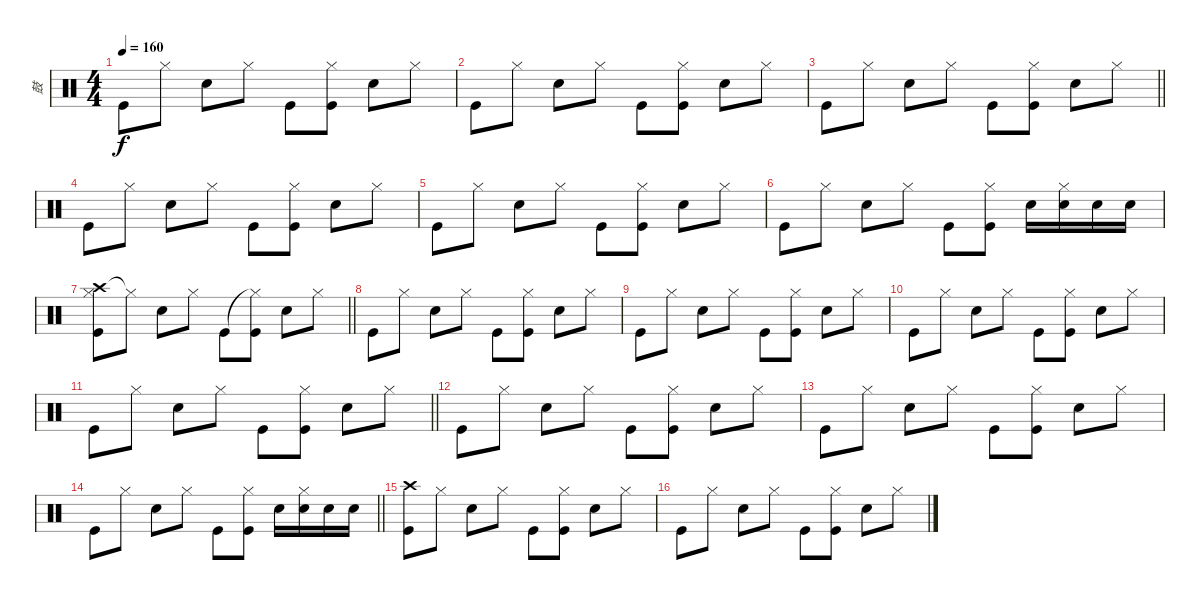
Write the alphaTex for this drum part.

\track ("鼓" "鼓") {instrument percussion}
\staff {score}
\articulation defaults
\ts (4 4)
\tempo 160
\clef neutral
\ks c "Kick (hit)".8{dy f} "Hi-Hat (closed)".8 "Electric Snare (hit)".8 "Hi-Hat (closed)".8 "Kick (hit)".8
("Hi-Hat (closed)" "Kick (hit)").8 "Electric Snare (hit)".8 "Hi-Hat (closed)".8 |
"Kick (hit)".8 "Hi-Hat (closed)".8 "Electric Snare (hit)".8 "Hi-Hat (closed)".8 "Kick (hit)".8 ("Hi-Hat (closed)" "Kick (hit)").8 "Electric Snare (hit)".8 "Hi-Hat (closed)".8 |
\barLineRight lightlight "Kick (hit)".8 "Hi-Hat (closed)".8 "Electric Snare (hit)".8 "Hi-Hat (closed)".8 "Kick (hit)".8
("Hi-Hat (closed)" "Kick (hit)").8 "Electric Snare (hit)".8 "Hi-Hat (closed)".8 |
"Kick (hit)".8 "Hi-Hat (closed)".8 "Electric Snare (hit)".8 "Hi-Hat (closed)".8 "Kick (hit)".8 ("Hi-Hat (closed)" "Kick (hit)").8 "Electric Snare (hit)".8 "Hi-Hat (closed)".8 |
"Kick (hit)".8 "Hi-Hat (closed)".8 "Electric Snare (hit)".8 "Hi-Hat (closed)".8 "Kick (hit)".8 ("Hi-Hat (closed)" "Kick (hit)").8 "Electric Snare (hit)".8 "Hi-Hat (closed)".8 |
"Kick (hit)".8 "Hi-Hat (closed)".8 "Electric Snare (hit)".8 "Hi-Hat (closed)".8 "Kick (hit)".8 ("Hi-Hat (closed)" "Kick (hit)").8 "Electric Snare (hit)".16 ("Hi-Hat (closed)" "Electric Snare (hit)").16 "Electric Snare (hit)".16 "Electric Snare (hit)".16 |
\barLineRight lightlight
("Crash high (hit)" "Hi-Hat (closed)" "Kick (hit)").8 "Hi-Hat (closed)"{t}.8 "Electric Snare (hit)".8 "Hi-Hat (closed)".8 "Kick (hit)".8 ("Hi-Hat (closed)"{t} "Kick (hit)").8 "Electric Snare (hit)".8 "Hi-Hat (closed)".8 |
"Kick (hit)".8 "Hi-Hat (closed)".8 "Electric Snare (hit)".8 "Hi-Hat (closed)".8 "Kick (hit)".8 ("Hi-Hat (closed)" "Kick (hit)").8 "Electric Snare (hit)".8 "Hi-Hat (closed)".8 |
"Kick (hit)".8 "Hi-Hat (closed)".8 "Electric Snare (hit)".8 "Hi-Hat (closed)".8 "Kick (hit)".8 ("Hi-Hat (closed)" "Kick (hit)").8 "Electric Snare (hit)".8 "Hi-Hat (closed)".8 |
"Kick (hit)".8 "Hi-Hat (closed)".8 "Electric Snare (hit)".8 "Hi-Hat (closed)".8 "Kick (hit)".8 ("Hi-Hat (closed)" "Kick (hit)").8 "Electric Snare (hit)".8 "Hi-Hat (closed)".8 |
\barLineRight lightlight "Kick (hit)".8 "Hi-Hat (closed)".8 "Electric Snare (hit)".8 "Hi-Hat (closed)".8 "Kick (hit)".8
("Hi-Hat (closed)" "Kick (hit)").8 "Electric Snare (hit)".8 "Hi-Hat (closed)".8 |
"Kick (hit)".8 "Hi-Hat (closed)".8 "Electric Snare (hit)".8 "Hi-Hat (closed)".8 "Kick (hit)".8 ("Hi-Hat (closed)" "Kick (hit)").8 "Electric Snare (hit)".8 "Hi-Hat (closed)".8 |
"Kick (hit)".8 "Hi-Hat (closed)".8 "Electric Snare (hit)".8 "Hi-Hat (closed)".8 "Kick (hit)".8 ("Hi-Hat (closed)" "Kick (hit)").8 "Electric Snare (hit)".8 "Hi-Hat (closed)".8 |
\barLineRight lightlight "Kick (hit)".8 "Hi-Hat (closed)".8 "Electric Snare (hit)".8 "Hi-Hat (closed)".8 "Kick (hit)".8
("Hi-Hat (closed)" "Kick (hit)").8 "Electric Snare (hit)".16 ("Hi-Hat (closed)" "Electric Snare (hit)").16 "Electric Snare (hit)".16 "Electric Snare (hit)".16 |
\section ("" "")
("Crash high (hit)" "Kick (hit)").8 "Hi-Hat (closed)".8 "Electric Snare (hit)".8 "Hi-Hat (closed)".8 "Kick (hit)".8 ("Hi-Hat (closed)" "Kick (hit)").8 "Electric Snare (hit)".8 "Hi-Hat (closed)".8 |
"Kick (hit)".8 "Hi-Hat (closed)".8 "Electric Snare (hit)".8 "Hi-Hat (closed)".8 "Kick (hit)".8 ("Hi-Hat (closed)" "Kick (hit)").8 "Electric Snare (hit)".8 "Hi-Hat (closed)".8
